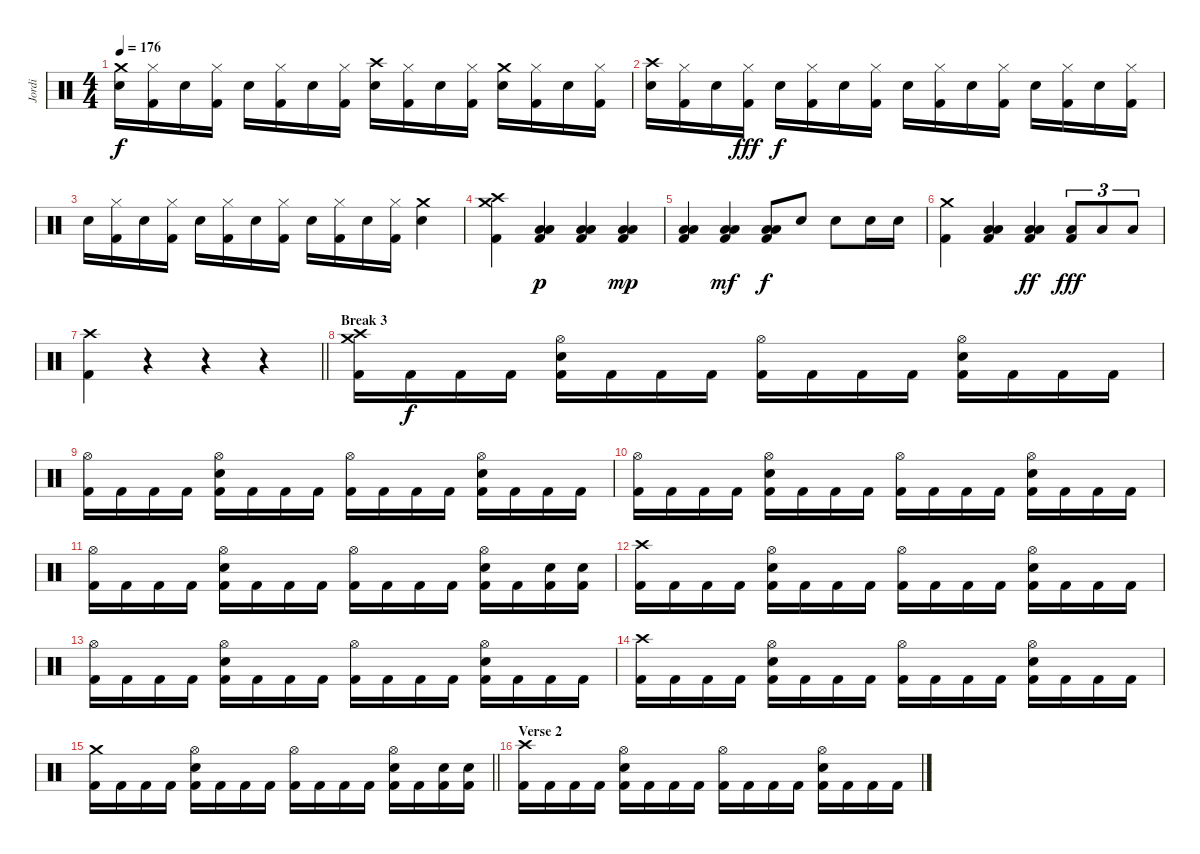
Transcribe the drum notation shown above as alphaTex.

\track ("Jordi" "Jordi") {instrument percussion}
\staff {score}
\articulation defaults
\ts (4 4)
\tempo 176
\clef neutral
\ks c
("Crash medium (hit)" "Snare (hit) 2").16{dy f} ("Hi-Hat (closed)" "Kick (hit) 2").16 "Snare (hit) 2".16 ("Hi-Hat (closed)" "Kick (hit) 2").16 "Snare (hit) 2".16 ("Hi-Hat (closed)" "Kick (hit) 2").16 "Snare (hit) 2".16 ("Hi-Hat (closed)" "Kick (hit) 2").16 ("Crash high (hit)" "Snare (hit) 2").16 ("Hi-Hat (closed)" "Kick (hit) 2").16 "Snare (hit) 2".16 ("Hi-Hat (closed)" "Kick (hit) 2").16 ("Crash medium (hit)" "Snare (hit) 2").16 ("Hi-Hat (closed)" "Kick (hit) 2").16 "Snare (hit) 2".16 ("Hi-Hat (closed)" "Kick (hit) 2").16 |
("Crash high (hit)" "Snare (hit) 2").16 ("Hi-Hat (closed)" "Kick (hit) 2").16 "Snare (hit) 2".16 ("Hi-Hat (closed)" "Kick (hit) 2").16{dy fff} "Snare (hit) 2".16{dy f} ("Hi-Hat (closed)" "Kick (hit) 2").16 "Snare (hit) 2".16 ("Hi-Hat (closed)" "Kick (hit) 2").16 "Snare (hit) 2".16 ("Hi-Hat (closed)" "Kick (hit) 2").16 "Snare (hit) 2".16 ("Hi-Hat (closed)" "Kick (hit) 2").16 "Snare (hit) 2".16 ("Hi-Hat (closed)" "Kick (hit) 2").16 "Snare (hit) 2".16 ("Hi-Hat (closed)" "Kick (hit) 2").16 |
"Snare (hit) 2".16 ("Hi-Hat (closed)" "Kick (hit) 2").16 "Snare (hit) 2".16 ("Hi-Hat (closed)" "Kick (hit) 2").16 "Snare (hit) 2".16 ("Hi-Hat (closed)" "Kick (hit) 2").16 "Snare (hit) 2".16 ("Hi-Hat (closed)" "Kick (hit) 2").16 "Snare (hit) 2".16 ("Hi-Hat (closed)" "Kick (hit) 2").16 "Snare (hit) 2".16 ("Hi-Hat (closed)" "Kick (hit) 2").16 ("Crash medium (hit)" "Snare (hit) 2").4 |
("Crash high (hit)" "Crash medium (hit)" "Kick (hit) 2").4 ("Low Floor Tom (hit)" "Low Floor Tom (hit)" "Kick (hit) 2").4{dy p} ("Low Floor Tom (hit)" "Low Floor Tom (hit)" "Kick (hit) 2").4 ("Low Floor Tom (hit)" "Low Floor Tom (hit)" "Kick (hit) 2").4{dy mp} |
("Low Floor Tom (hit)" "Low Floor Tom (hit)" "Kick (hit) 2").4 ("Low Floor Tom (hit)" "Low Floor Tom (hit)" "Kick (hit) 2").4{dy mf} ("Low Floor Tom (hit)" "Low Floor Tom (hit)" "Kick (hit) 2").8{dy f} "Snare (hit) 2".8 "Snare (hit) 2".8 "Snare (hit) 2".16 "Snare (hit) 2".16 |
("Crash medium (hit)" "Kick (hit) 2").4 ("Low Floor Tom (hit)" "Low Floor Tom (hit)" "Kick (hit) 2").4 ("Low Floor Tom (hit)" "Low Floor Tom (hit)" "Kick (hit) 2").4{dy ff} ("Low Floor Tom (hit)" "Kick (hit) 2").8{tu (3 2) dy fff} "Low Floor Tom (hit)".8{tu (3 2)} "Low Floor Tom (hit)".8{tu (3 2)} |
\barLineRight lightlight
("Crash high (hit)" "Kick (hit) 2").4 r.4 r.4 r.4 |
\section ("" "Break 3")
("Crash high (hit)" "Crash medium (hit)" "Kick (hit) 2").16 "Kick (hit) 2".16{dy f} "Kick (hit) 2".16 "Kick (hit) 2".16 ("Hi-Hat (open)" "Snare (hit) 2" "Kick (hit) 2").16 "Kick (hit) 2".16 "Kick (hit) 2".16 "Kick (hit) 2".16 ("Hi-Hat (open)" "Kick (hit) 2").16 "Kick (hit) 2".16 "Kick (hit) 2".16 "Kick (hit) 2".16 ("Hi-Hat (open)" "Snare (hit) 2" "Kick (hit) 2").16 "Kick (hit) 2".16 "Kick (hit) 2".16 "Kick (hit) 2".16 |
("Hi-Hat (open)" "Kick (hit) 2").16 "Kick (hit) 2".16 "Kick (hit) 2".16 "Kick (hit) 2".16 ("Hi-Hat (open)" "Snare (hit) 2" "Kick (hit) 2").16 "Kick (hit) 2".16 "Kick (hit) 2".16 "Kick (hit) 2".16 ("Hi-Hat (open)" "Kick (hit) 2").16 "Kick (hit) 2".16 "Kick (hit) 2".16 "Kick (hit) 2".16 ("Hi-Hat (open)" "Snare (hit) 2" "Kick (hit) 2").16 "Kick (hit) 2".16 "Kick (hit) 2".16 "Kick (hit) 2".16 |
("Hi-Hat (open)" "Kick (hit) 2").16 "Kick (hit) 2".16 "Kick (hit) 2".16 "Kick (hit) 2".16 ("Hi-Hat (open)" "Snare (hit) 2" "Kick (hit) 2").16 "Kick (hit) 2".16 "Kick (hit) 2".16 "Kick (hit) 2".16 ("Hi-Hat (open)" "Kick (hit) 2").16 "Kick (hit) 2".16 "Kick (hit) 2".16 "Kick (hit) 2".16 ("Hi-Hat (open)" "Snare (hit) 2" "Kick (hit) 2").16 "Kick (hit) 2".16 "Kick (hit) 2".16 "Kick (hit) 2".16 |
("Hi-Hat (open)" "Kick (hit) 2").16 "Kick (hit) 2".16 "Kick (hit) 2".16 "Kick (hit) 2".16 ("Hi-Hat (open)" "Snare (hit) 2" "Kick (hit) 2").16 "Kick (hit) 2".16 "Kick (hit) 2".16 "Kick (hit) 2".16 ("Hi-Hat (open)" "Kick (hit) 2").16 "Kick (hit) 2".16 "Kick (hit) 2".16 "Kick (hit) 2".16 ("Hi-Hat (open)" "Snare (hit) 2" "Kick (hit) 2").16 "Kick (hit) 2".16 ("Snare (hit) 2" "Kick (hit) 2").16 ("Snare (hit) 2" "Kick (hit) 2").16 |
("Crash high (hit)" "Kick (hit) 2").16 "Kick (hit) 2".16 "Kick (hit) 2".16 "Kick (hit) 2".16 ("Hi-Hat (open)" "Snare (hit) 2" "Kick (hit) 2").16 "Kick (hit) 2".16 "Kick (hit) 2".16 "Kick (hit) 2".16 ("Hi-Hat (open)" "Kick (hit) 2").16 "Kick (hit) 2".16 "Kick (hit) 2".16 "Kick (hit) 2".16 ("Hi-Hat (open)" "Snare (hit) 2" "Kick (hit) 2").16 "Kick (hit) 2".16 "Kick (hit) 2".16 "Kick (hit) 2".16 |
("Hi-Hat (open)" "Kick (hit) 2").16 "Kick (hit) 2".16 "Kick (hit) 2".16 "Kick (hit) 2".16 ("Hi-Hat (open)" "Snare (hit) 2" "Kick (hit) 2").16 "Kick (hit) 2".16 "Kick (hit) 2".16 "Kick (hit) 2".16 ("Hi-Hat (open)" "Kick (hit) 2").16 "Kick (hit) 2".16 "Kick (hit) 2".16 "Kick (hit) 2".16 ("Hi-Hat (open)" "Snare (hit) 2" "Kick (hit) 2").16 "Kick (hit) 2".16 "Kick (hit) 2".16 "Kick (hit) 2".16 |
("Crash high (hit)" "Kick (hit) 2").16 "Kick (hit) 2".16 "Kick (hit) 2".16 "Kick (hit) 2".16 ("Hi-Hat (open)" "Snare (hit) 2" "Kick (hit) 2").16 "Kick (hit) 2".16 "Kick (hit) 2".16 "Kick (hit) 2".16 ("Hi-Hat (open)" "Kick (hit) 2").16 "Kick (hit) 2".16 "Kick (hit) 2".16 "Kick (hit) 2".16 ("Hi-Hat (open)" "Snare (hit) 2" "Kick (hit) 2").16 "Kick (hit) 2".16 "Kick (hit) 2".16 "Kick (hit) 2".16 |
\barLineRight lightlight
("Crash medium (hit)" "Kick (hit) 2").16 "Kick (hit) 2".16 "Kick (hit) 2".16 "Kick (hit) 2".16 ("Hi-Hat (open)" "Snare (hit) 2" "Kick (hit) 2").16 "Kick (hit) 2".16 "Kick (hit) 2".16 "Kick (hit) 2".16 ("Hi-Hat (open)" "Kick (hit) 2").16 "Kick (hit) 2".16 "Kick (hit) 2".16 "Kick (hit) 2".16 ("Hi-Hat (open)" "Snare (hit) 2" "Kick (hit) 2").16 "Kick (hit) 2".16 ("Snare (hit) 2" "Kick (hit) 2").16 ("Snare (hit) 2" "Kick (hit) 2").16 |
\section ("" "Verse 2")
("Crash high (hit)" "Kick (hit) 2").16 "Kick (hit) 2".16 "Kick (hit) 2".16 "Kick (hit) 2".16 ("Hi-Hat (open)" "Snare (hit) 2" "Kick (hit) 2").16 "Kick (hit) 2".16 "Kick (hit) 2".16 "Kick (hit) 2".16 ("Hi-Hat (open)" "Kick (hit) 2").16 "Kick (hit) 2".16 "Kick (hit) 2".16 "Kick (hit) 2".16 ("Hi-Hat (open)" "Snare (hit) 2" "Kick (hit) 2").16 "Kick (hit) 2".16 "Kick (hit) 2".16 "Kick (hit) 2".16
